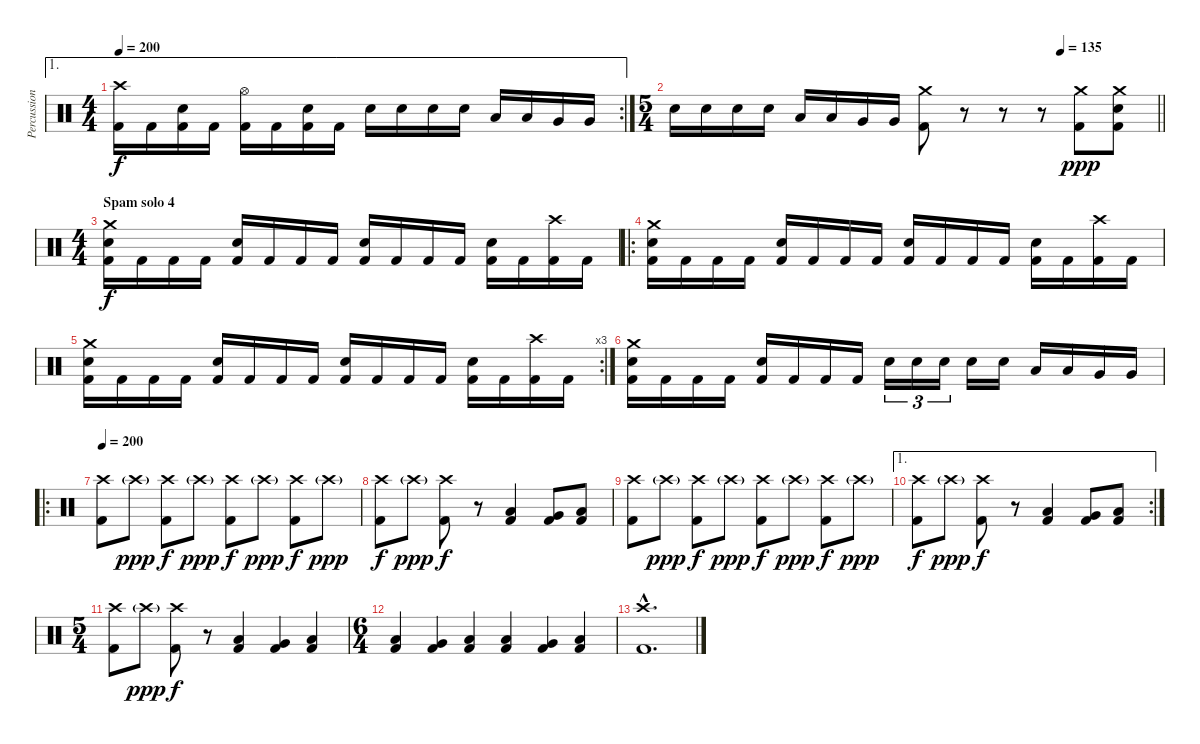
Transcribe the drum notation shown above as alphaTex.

\track ("Percussion" "Percussion") {instrument percussion}
\staff {score}
\articulation defaults
\ae 1
\rc 2
\ts (4 4)
\tempo 200
\clef neutral
\ks c
("Crash high (hit)" "Kick (hit) 2").16{dy f} "Kick (hit) 2".16 ("Electric Snare (hit)" "Kick (hit) 2").16 "Kick (hit) 2".16 ("Hi-Hat (open)" "Kick (hit) 2").16 "Kick (hit) 2".16 ("Electric Snare (hit)" "Kick (hit) 2").16 "Kick (hit) 2".16 "Snare (hit) 2".16 "Snare (hit) 2".16 "Snare (hit) 2".16 "Snare (hit) 2".16 "Low Tom (hit)".16 "Low Tom (hit)".16 "Very Low Tom (hit)".16 "Very Low Tom (hit)".16 |
\ts (5 4)
\tempo (135 0.8)
\barLineRight lightlight "Snare (hit) 2".16 "Snare (hit) 2".16 "Snare (hit) 2".16 "Snare (hit) 2".16 "Low Tom (hit)".16 "Low Tom (hit)".16 "Very Low Tom (hit)".16 "Very Low Tom (hit)".16
("Crash medium (hit)" "Kick (hit) 2").8 r.8 r.8 r.8 ("Crash medium (hit)" "Kick (hit) 2").8{dy ppp} ("Crash medium (hit)" "Snare (hit) 2" "Kick (hit) 2").8 |
\ts (4 4)
\section ("" "Spam solo 4")
("Crash medium (hit)" "Electric Snare (hit)" "Kick (hit) 2").16{dy f} "Kick (hit) 2".16 "Kick (hit) 2".16 "Kick (hit) 2".16 ("Electric Snare (hit)" "Kick (hit) 2").16 "Kick (hit) 2".16 "Kick (hit) 2".16 "Kick (hit) 2".16 ("Electric Snare (hit)" "Kick (hit) 2").16 "Kick (hit) 2".16 "Kick (hit) 2".16 "Kick (hit) 2".16 ("Electric Snare (hit)" "Kick (hit) 2").16 "Kick (hit) 2".16 ("Crash high (hit)" "Kick (hit) 2").16 "Kick (hit) 2".16 |
\ro
("Crash medium (hit)" "Electric Snare (hit)" "Kick (hit) 2").16 "Kick (hit) 2".16 "Kick (hit) 2".16 "Kick (hit) 2".16 ("Electric Snare (hit)" "Kick (hit) 2").16 "Kick (hit) 2".16 "Kick (hit) 2".16 "Kick (hit) 2".16 ("Electric Snare (hit)" "Kick (hit) 2").16 "Kick (hit) 2".16 "Kick (hit) 2".16 "Kick (hit) 2".16 ("Electric Snare (hit)" "Kick (hit) 2").16 "Kick (hit) 2".16 ("Crash high (hit)" "Kick (hit) 2").16 "Kick (hit) 2".16 |
\rc 3
("Crash medium (hit)" "Electric Snare (hit)" "Kick (hit) 2").16 "Kick (hit) 2".16 "Kick (hit) 2".16 "Kick (hit) 2".16 ("Electric Snare (hit)" "Kick (hit) 2").16 "Kick (hit) 2".16 "Kick (hit) 2".16 "Kick (hit) 2".16 ("Electric Snare (hit)" "Kick (hit) 2").16 "Kick (hit) 2".16 "Kick (hit) 2".16 "Kick (hit) 2".16 ("Electric Snare (hit)" "Kick (hit) 2").16 "Kick (hit) 2".16 ("Crash high (hit)" "Kick (hit) 2").16 "Kick (hit) 2".16 |
("Crash medium (hit)" "Electric Snare (hit)" "Kick (hit) 2").16 "Kick (hit) 2".16 "Kick (hit) 2".16 "Kick (hit) 2".16 ("Electric Snare (hit)" "Kick (hit) 2").16 "Kick (hit) 2".16 "Kick (hit) 2".16 "Kick (hit) 2".16 "Snare (hit) 2".16{tu (3 2)} "Snare (hit) 2".16{tu (3 2)} "Snare (hit) 2".16{tu (3 2)} "Snare (hit) 2".16 "Snare (hit) 2".16 "Low Tom (hit)".16 "Low Tom (hit)".16 "Very Low Tom (hit)".16 "Very Low Tom (hit)".16 |
\ro
\tempo 200
("Crash high (hit)" "Kick (hit) 2").8 "Crash high (hit)"{g}.8{dy ppp} ("Crash high (hit)" "Kick (hit) 2").8{dy f} "Crash high (hit)"{g}.8{dy ppp} ("Crash high (hit)" "Kick (hit) 2").8{dy f} "Crash high (hit)"{g}.8{dy ppp} ("Crash high (hit)" "Kick (hit) 2").8{dy f} "Crash high (hit)"{g}.8{dy ppp} |
("Crash high (hit)" "Kick (hit) 2").8{dy f} "Crash high (hit)"{g}.8{dy ppp} ("Crash high (hit)" "Kick (hit) 2").8{dy f} r.8 ("Low Floor Tom (hit)" "Kick (hit) 2").4 ("Very Low Tom (hit)" "Kick (hit) 2").8 ("Low Tom (hit)" "Kick (hit) 2").8 |
("Crash high (hit)" "Kick (hit) 2").8 "Crash high (hit)"{g}.8{dy ppp} ("Crash high (hit)" "Kick (hit) 2").8{dy f} "Crash high (hit)"{g}.8{dy ppp} ("Crash high (hit)" "Kick (hit) 2").8{dy f} "Crash high (hit)"{g}.8{dy ppp} ("Crash high (hit)" "Kick (hit) 2").8{dy f} "Crash high (hit)"{g}.8{dy ppp} |
\ae 1
\rc 2
("Crash high (hit)" "Kick (hit) 2").8{dy f} "Crash high (hit)"{g}.8{dy ppp} ("Crash high (hit)" "Kick (hit) 2").8{dy f} r.8 ("Low Floor Tom (hit)" "Kick (hit) 2").4 ("Very Low Tom (hit)" "Kick (hit) 2").8 ("Low Tom (hit)" "Kick (hit) 2").8 |
\ts (5 4)
("Crash high (hit)" "Kick (hit) 2").8 "Crash high (hit)"{g}.8{dy ppp} ("Crash high (hit)" "Kick (hit) 2").8{dy f} r.8 ("Low Floor Tom (hit)" "Kick (hit) 2").4 ("Very Low Tom (hit)" "Kick (hit) 2").4 ("Low Tom (hit)" "Kick (hit) 2").4 |
\ts (6 4)
("Low Floor Tom (hit)" "Kick (hit) 2").4 ("Very Low Tom (hit)" "Kick (hit) 2").4 ("Low Tom (hit)" "Kick (hit) 2").4 ("Low Floor Tom (hit)" "Kick (hit) 2").4 ("Very Low Tom (hit)" "Kick (hit) 2").4 ("Low Tom (hit)" "Kick (hit) 2").4 |
("Crash high (hit)"{hac} "Kick (hit) 2"{hac}).1{d}
